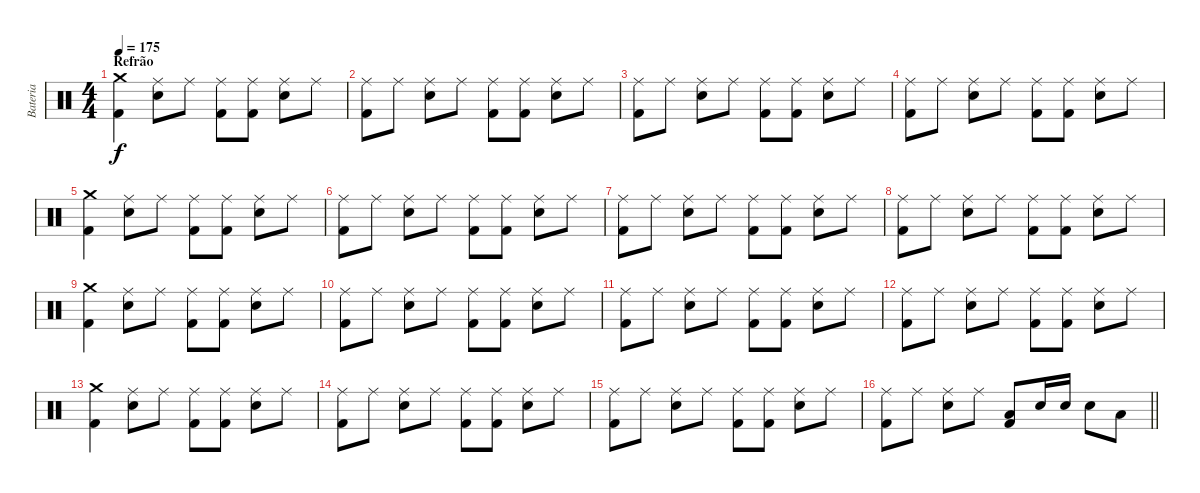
\track ("Bateria" "Bateria") {instrument percussion}
\staff {score}
\articulation defaults
\ts (4 4)
\section ("" "Refrão")
\tempo 175
\clef neutral
\ks c
("Crash medium (hit)" "Kick (hit) 2").4{dy f} ("Ride (middle)" "Electric Snare (hit)").8 "Ride (middle)".8 ("Ride (middle)" "Kick (hit) 2").8 ("Ride (middle)" "Kick (hit) 2").8 ("Ride (middle)" "Electric Snare (hit)").8 "Ride (middle)".8 |
("Ride (middle)" "Kick (hit) 2").8 "Ride (middle)".8 ("Ride (middle)" "Electric Snare (hit)").8 "Ride (middle)".8 ("Ride (middle)" "Kick (hit) 2").8 ("Ride (middle)" "Kick (hit) 2").8 ("Ride (middle)" "Electric Snare (hit)").8 "Ride (middle)".8 |
("Ride (middle)" "Kick (hit) 2").8 "Ride (middle)".8 ("Ride (middle)" "Electric Snare (hit)").8 "Ride (middle)".8 ("Ride (middle)" "Kick (hit) 2").8 ("Ride (middle)" "Kick (hit) 2").8 ("Ride (middle)" "Electric Snare (hit)").8 "Ride (middle)".8 |
("Ride (middle)" "Kick (hit) 2").8 "Ride (middle)".8 ("Ride (middle)" "Electric Snare (hit)").8 "Ride (middle)".8 ("Ride (middle)" "Kick (hit) 2").8 ("Ride (middle)" "Kick (hit) 2").8 ("Ride (middle)" "Electric Snare (hit)").8 "Ride (middle)".8 |
("Crash medium (hit)" "Kick (hit) 2").4 ("Ride (middle)" "Electric Snare (hit)").8 "Ride (middle)".8 ("Ride (middle)" "Kick (hit) 2").8 ("Ride (middle)" "Kick (hit) 2").8 ("Ride (middle)" "Electric Snare (hit)").8 "Ride (middle)".8 |
("Ride (middle)" "Kick (hit) 2").8 "Ride (middle)".8 ("Ride (middle)" "Electric Snare (hit)").8 "Ride (middle)".8 ("Ride (middle)" "Kick (hit) 2").8 ("Ride (middle)" "Kick (hit) 2").8 ("Ride (middle)" "Electric Snare (hit)").8 "Ride (middle)".8 |
("Ride (middle)" "Kick (hit) 2").8 "Ride (middle)".8 ("Ride (middle)" "Electric Snare (hit)").8 "Ride (middle)".8 ("Ride (middle)" "Kick (hit) 2").8 ("Ride (middle)" "Kick (hit) 2").8 ("Ride (middle)" "Electric Snare (hit)").8 "Ride (middle)".8 |
("Ride (middle)" "Kick (hit) 2").8 "Ride (middle)".8 ("Ride (middle)" "Electric Snare (hit)").8 "Ride (middle)".8 ("Ride (middle)" "Kick (hit) 2").8 ("Ride (middle)" "Kick (hit) 2").8 ("Ride (middle)" "Electric Snare (hit)").8 "Ride (middle)".8 |
("Crash medium (hit)" "Kick (hit) 2").4 ("Ride (middle)" "Electric Snare (hit)").8 "Ride (middle)".8 ("Ride (middle)" "Kick (hit) 2").8 ("Ride (middle)" "Kick (hit) 2").8 ("Ride (middle)" "Electric Snare (hit)").8 "Ride (middle)".8 |
("Ride (middle)" "Kick (hit) 2").8 "Ride (middle)".8 ("Ride (middle)" "Electric Snare (hit)").8 "Ride (middle)".8 ("Ride (middle)" "Kick (hit) 2").8 ("Ride (middle)" "Kick (hit) 2").8 ("Ride (middle)" "Electric Snare (hit)").8 "Ride (middle)".8 |
("Ride (middle)" "Kick (hit) 2").8 "Ride (middle)".8 ("Ride (middle)" "Electric Snare (hit)").8 "Ride (middle)".8 ("Ride (middle)" "Kick (hit) 2").8 ("Ride (middle)" "Kick (hit) 2").8 ("Ride (middle)" "Electric Snare (hit)").8 "Ride (middle)".8 |
("Ride (middle)" "Kick (hit) 2").8 "Ride (middle)".8 ("Ride (middle)" "Electric Snare (hit)").8 "Ride (middle)".8 ("Ride (middle)" "Kick (hit) 2").8 ("Ride (middle)" "Kick (hit) 2").8 ("Ride (middle)" "Electric Snare (hit)").8 "Ride (middle)".8 |
("Crash medium (hit)" "Kick (hit) 2").4 ("Ride (middle)" "Electric Snare (hit)").8 "Ride (middle)".8 ("Ride (middle)" "Kick (hit) 2").8 ("Ride (middle)" "Kick (hit) 2").8 ("Ride (middle)" "Electric Snare (hit)").8 "Ride (middle)".8 |
("Ride (middle)" "Kick (hit) 2").8 "Ride (middle)".8 ("Ride (middle)" "Electric Snare (hit)").8 "Ride (middle)".8 ("Ride (middle)" "Kick (hit) 2").8 ("Ride (middle)" "Kick (hit) 2").8 ("Ride (middle)" "Electric Snare (hit)").8 "Ride (middle)".8 |
("Ride (middle)" "Kick (hit) 2").8 "Ride (middle)".8 ("Ride (middle)" "Electric Snare (hit)").8 "Ride (middle)".8 ("Ride (middle)" "Kick (hit) 2").8 ("Ride (middle)" "Kick (hit) 2").8 ("Ride (middle)" "Electric Snare (hit)").8 "Ride (middle)".8 |
\barLineRight lightlight
("Ride (middle)" "Kick (hit) 2").8 "Ride (middle)".8 ("Ride (middle)" "Electric Snare (hit)").8 "Ride (middle)".8 ("Low Tom (hit)" "Kick (hit) 2").8 "Electric Snare (hit)".16 "Electric Snare (hit)".16 "Electric Snare (hit)".8 "Low Tom (hit)".8
